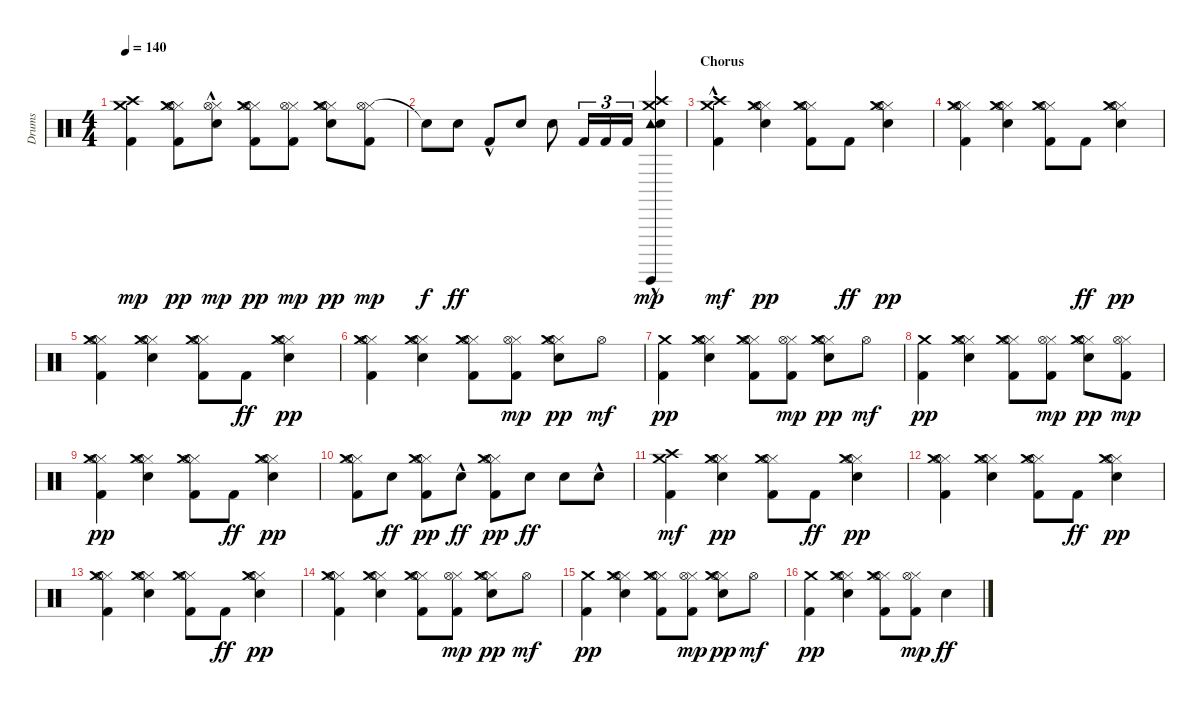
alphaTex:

\track ("Drums" "Drums") {instrument percussion}
\staff {score}
\articulation defaults
\ts (4 4)
\tempo 140
\clef neutral
\ks c
("Kick (hit) 2" "Crash high (hit)" "Crash medium (hit)").4{dy mp} ("Hi-Hat (closed)" "Hi-Hat (open)" "Kick (hit) 2" "Crash medium (hit)").8{dy pp} ("Hi-Hat (closed)" "Snare (hit) 2"{hac} "Hi-Hat (open)").8{dy mp} ("Kick (hit) 2" "Hi-Hat (closed)" "Hi-Hat (open)" "Crash medium (hit)").8{dy pp} ("Hi-Hat (closed)" "Kick (hit) 2" "Hi-Hat (open)").8{dy mp} ("Snare (hit) 2" "Hi-Hat (closed)" "Hi-Hat (open)" "Crash medium (hit)").8{dy pp} ("Hi-Hat (closed)" "Kick (hit) 2" "Hi-Hat (open)").8{dy mp} |
"Snare (hit)"{t}.8{dy f} "Snare (hit) 2".8{dy ff} "Kick (hit) 2"{hac}.8 "Snare (hit) 2".8 "Snare (hit) 2".8 "Kick (hit) 2".16{tu (3 2)} "Kick (hit) 2".16{tu (3 2)} "Kick (hit) 2".16{tu (3 2)} ("Crash high (hit)" "Tambourine (hit)"{hac} "Crash medium (hit)" "Snare (hit) 2"{hac} "Guiro (hit)"{hac}).4{dy mp} |
\section ("" "Chorus")
("Kick (hit) 2"{hac} "Crash high (hit)" "Crash medium (hit)").4{dy mf} ("Snare (hit) 2" "Hi-Hat (closed)" "Hi-Hat (open)" "Crash medium (hit)").4{dy pp} ("Kick (hit) 2" "Hi-Hat (closed)" "Hi-Hat (open)" "Crash medium (hit)").8 "Kick (hit) 2".8{dy ff} ("Snare (hit) 2" "Hi-Hat (closed)" "Hi-Hat (open)" "Crash medium (hit)").4{dy pp} |
("Kick (hit) 2" "Hi-Hat (closed)" "Hi-Hat (open)" "Crash medium (hit)").4 ("Snare (hit) 2" "Hi-Hat (closed)" "Hi-Hat (open)" "Crash medium (hit)").4 ("Kick (hit) 2" "Hi-Hat (closed)" "Hi-Hat (open)" "Crash medium (hit)").8 "Kick (hit) 2".8{dy ff} ("Snare (hit) 2" "Hi-Hat (closed)" "Hi-Hat (open)" "Crash medium (hit)").4{dy pp} |
("Kick (hit) 2" "Hi-Hat (closed)" "Hi-Hat (open)" "Crash medium (hit)").4 ("Snare (hit) 2" "Hi-Hat (closed)" "Hi-Hat (open)" "Crash medium (hit)").4 ("Kick (hit) 2" "Hi-Hat (closed)" "Hi-Hat (open)" "Crash medium (hit)").8 "Kick (hit) 2".8{dy ff} ("Snare (hit) 2" "Hi-Hat (closed)" "Hi-Hat (open)" "Crash medium (hit)").4{dy pp} |
("Kick (hit) 2" "Hi-Hat (closed)" "Hi-Hat (open)" "Crash medium (hit)").4 ("Snare (hit) 2" "Hi-Hat (closed)" "Hi-Hat (open)" "Crash medium (hit)").4 ("Kick (hit) 2" "Hi-Hat (closed)" "Hi-Hat (open)" "Crash medium (hit)").8 ("Kick (hit) 2" "Hi-Hat (closed)" "Hi-Hat (open)").8{dy mp} ("Snare (hit) 2" "Hi-Hat (closed)" "Hi-Hat (open)" "Crash medium (hit)").8{dy pp} "Hi-Hat (open)".8{dy mf} |
("Kick (hit) 2" "Crash medium (hit)").4{dy pp} ("Snare (hit) 2" "Hi-Hat (closed)" "Hi-Hat (open)" "Crash medium (hit)").4 ("Kick (hit) 2" "Hi-Hat (closed)" "Hi-Hat (open)" "Crash medium (hit)").8 ("Kick (hit) 2" "Hi-Hat (closed)" "Hi-Hat (open)").8{dy mp} ("Snare (hit) 2" "Hi-Hat (closed)" "Hi-Hat (open)" "Crash medium (hit)").8{dy pp} "Hi-Hat (open)".8{dy mf} |
("Kick (hit) 2" "Crash medium (hit)").4{dy pp} ("Snare (hit) 2" "Hi-Hat (closed)" "Hi-Hat (open)" "Crash medium (hit)").4 ("Kick (hit) 2" "Hi-Hat (closed)" "Hi-Hat (open)" "Crash medium (hit)").8 ("Kick (hit) 2" "Hi-Hat (closed)" "Hi-Hat (open)").8{dy mp} ("Snare (hit) 2" "Hi-Hat (closed)" "Hi-Hat (open)" "Crash medium (hit)").8{dy pp} ("Hi-Hat (closed)" "Kick (hit) 2" "Hi-Hat (open)").8{dy mp} |
("Kick (hit) 2" "Hi-Hat (closed)" "Hi-Hat (open)" "Crash medium (hit)").4{dy pp} ("Snare (hit) 2" "Hi-Hat (closed)" "Hi-Hat (open)" "Crash medium (hit)").4 ("Kick (hit) 2" "Hi-Hat (closed)" "Hi-Hat (open)" "Crash medium (hit)").8 "Kick (hit) 2".8{dy ff} ("Snare (hit) 2" "Hi-Hat (closed)" "Hi-Hat (open)" "Crash medium (hit)").4{dy pp} |
("Kick (hit) 2" "Hi-Hat (closed)" "Hi-Hat (open)" "Crash medium (hit)").8 "Snare (hit) 2".8{dy ff} ("Hi-Hat (closed)" "Hi-Hat (open)" "Kick (hit) 2" "Crash medium (hit)").8{dy pp} "Snare (hit) 2"{hac}.8{dy ff} ("Kick (hit) 2" "Hi-Hat (closed)" "Hi-Hat (open)" "Crash medium (hit)").8{dy pp} "Snare (hit) 2".8{dy ff} "Snare (hit) 2".8 "Snare (hit) 2"{hac}.8 |
("Kick (hit) 2" "Crash high (hit)" "Crash medium (hit)").4{dy mf} ("Snare (hit) 2" "Hi-Hat (closed)" "Hi-Hat (open)" "Crash medium (hit)").4{dy pp} ("Kick (hit) 2" "Hi-Hat (closed)" "Hi-Hat (open)" "Crash medium (hit)").8 "Kick (hit) 2".8{dy ff} ("Snare (hit) 2" "Hi-Hat (closed)" "Hi-Hat (open)" "Crash medium (hit)").4{dy pp} |
("Kick (hit) 2" "Hi-Hat (closed)" "Hi-Hat (open)" "Crash medium (hit)").4 ("Snare (hit) 2" "Hi-Hat (closed)" "Hi-Hat (open)" "Crash medium (hit)").4 ("Kick (hit) 2" "Hi-Hat (closed)" "Hi-Hat (open)" "Crash medium (hit)").8 "Kick (hit) 2".8{dy ff} ("Snare (hit) 2" "Hi-Hat (closed)" "Hi-Hat (open)" "Crash medium (hit)").4{dy pp} |
("Kick (hit) 2" "Hi-Hat (closed)" "Hi-Hat (open)" "Crash medium (hit)").4 ("Snare (hit) 2" "Hi-Hat (closed)" "Hi-Hat (open)" "Crash medium (hit)").4 ("Kick (hit) 2" "Hi-Hat (closed)" "Hi-Hat (open)" "Crash medium (hit)").8 "Kick (hit) 2".8{dy ff} ("Snare (hit) 2" "Hi-Hat (closed)" "Hi-Hat (open)" "Crash medium (hit)").4{dy pp} |
("Kick (hit) 2" "Hi-Hat (closed)" "Hi-Hat (open)" "Crash medium (hit)").4 ("Snare (hit) 2" "Hi-Hat (closed)" "Hi-Hat (open)" "Crash medium (hit)").4 ("Kick (hit) 2" "Hi-Hat (closed)" "Hi-Hat (open)" "Crash medium (hit)").8 ("Kick (hit) 2" "Hi-Hat (closed)" "Hi-Hat (open)").8{dy mp} ("Snare (hit) 2" "Hi-Hat (closed)" "Hi-Hat (open)" "Crash medium (hit)").8{dy pp} "Hi-Hat (open)".8{dy mf} |
("Kick (hit) 2" "Crash medium (hit)").4{dy pp} ("Snare (hit) 2" "Hi-Hat (closed)" "Hi-Hat (open)" "Crash medium (hit)").4 ("Kick (hit) 2" "Hi-Hat (closed)" "Hi-Hat (open)" "Crash medium (hit)").8 ("Kick (hit) 2" "Hi-Hat (closed)" "Hi-Hat (open)").8{dy mp} ("Snare (hit) 2" "Hi-Hat (closed)" "Hi-Hat (open)" "Crash medium (hit)").8{dy pp} "Hi-Hat (open)".8{dy mf} |
("Kick (hit) 2" "Crash medium (hit)").4{dy pp} ("Snare (hit) 2" "Hi-Hat (closed)" "Hi-Hat (open)" "Crash medium (hit)").4 ("Kick (hit) 2" "Hi-Hat (closed)" "Hi-Hat (open)" "Crash medium (hit)").8 ("Kick (hit) 2" "Hi-Hat (closed)" "Hi-Hat (open)").8{dy mp} "Snare (hit) 2".4{dy ff}
